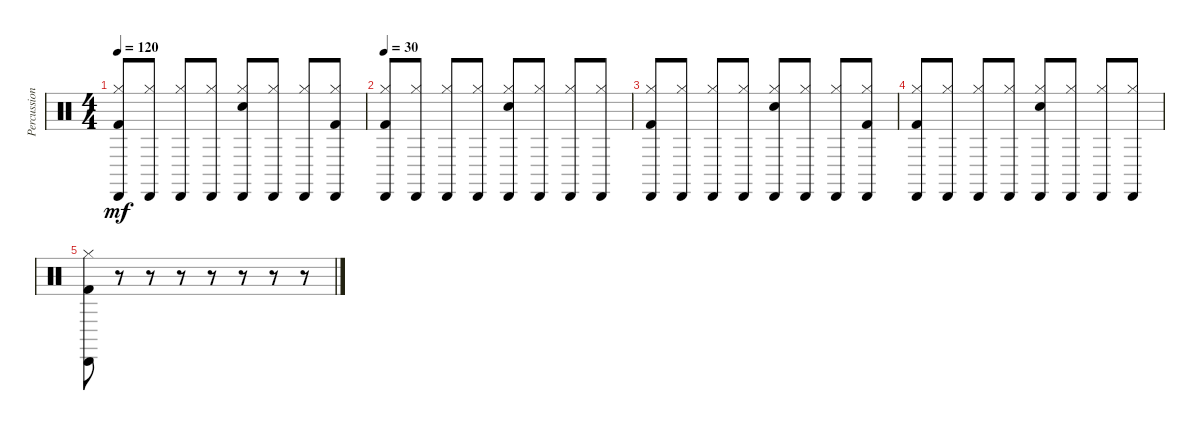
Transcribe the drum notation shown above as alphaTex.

\track ("Percussions" "Percussion") {instrument percussion}
\staff {score}
\articulation defaults
\ts (4 4)
\tempo 120
\clef neutral
\ks c
("Kick (hit) 2" "Cabasa (hit)" "Hi-Hat (closed)").8{dy mf} ("Cabasa (hit)" "Hi-Hat (closed)").8 ("Cabasa (hit)" "Hi-Hat (closed)").8 ("Cabasa (hit)" "Hi-Hat (closed)").8 ("Electric Snare (hit)" "Cabasa (hit)" "Hi-Hat (closed)").8 ("Cabasa (hit)" "Hi-Hat (closed)").8 ("Cabasa (hit)" "Hi-Hat (closed)").8 ("Kick (hit) 2" "Cabasa (hit)" "Hi-Hat (closed)").8 |
\tempo 30
("Kick (hit) 2" "Cabasa (hit)" "Hi-Hat (closed)").8 ("Cabasa (hit)" "Hi-Hat (closed)").8 ("Cabasa (hit)" "Hi-Hat (closed)").8 ("Cabasa (hit)" "Hi-Hat (closed)").8 ("Electric Snare (hit)" "Cabasa (hit)" "Hi-Hat (closed)").8 ("Cabasa (hit)" "Hi-Hat (closed)").8 ("Cabasa (hit)" "Hi-Hat (closed)").8 ("Cabasa (hit)" "Hi-Hat (closed)").8 |
("Kick (hit) 2" "Cabasa (hit)" "Hi-Hat (closed)").8 ("Cabasa (hit)" "Hi-Hat (closed)").8 ("Cabasa (hit)" "Hi-Hat (closed)").8 ("Cabasa (hit)" "Hi-Hat (closed)").8 ("Electric Snare (hit)" "Cabasa (hit)" "Hi-Hat (closed)").8 ("Cabasa (hit)" "Hi-Hat (closed)").8 ("Cabasa (hit)" "Hi-Hat (closed)").8 ("Kick (hit) 2" "Cabasa (hit)" "Hi-Hat (closed)").8 |
("Kick (hit) 2" "Cabasa (hit)" "Hi-Hat (closed)").8 ("Cabasa (hit)" "Hi-Hat (closed)").8 ("Cabasa (hit)" "Hi-Hat (closed)").8 ("Cabasa (hit)" "Hi-Hat (closed)").8 ("Electric Snare (hit)" "Cabasa (hit)" "Hi-Hat (closed)").8 ("Cabasa (hit)" "Hi-Hat (closed)").8 ("Cabasa (hit)" "Hi-Hat (closed)").8 ("Cabasa (hit)" "Hi-Hat (closed)").8 |
("Kick (hit) 2" "Cabasa (hit)" "Hi-Hat (closed)").8 r.8 r.8 r.8 r.8 r.8 r.8 r.8
